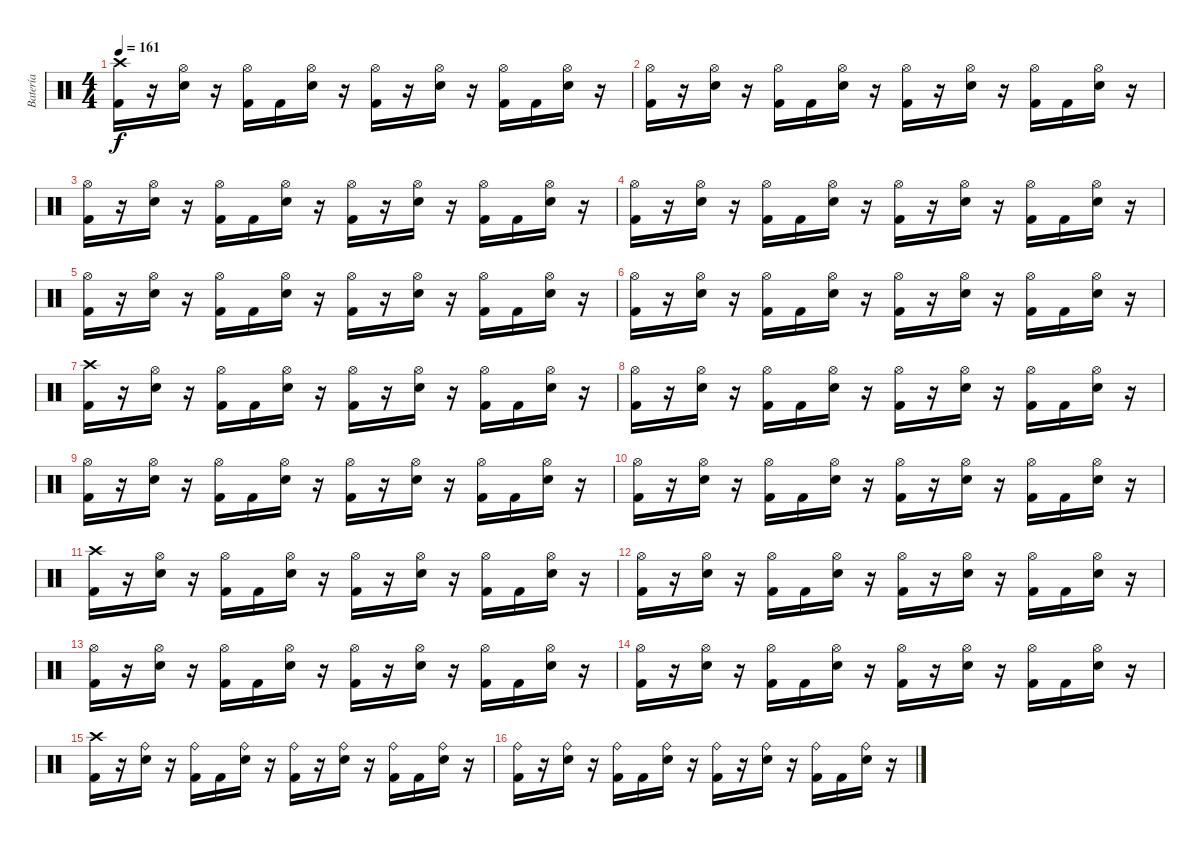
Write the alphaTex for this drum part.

\track ("Batería" "Batería") {instrument percussion}
\staff {score}
\articulation defaults
\ts (4 4)
\tempo 161
\clef neutral
\ks c
("Crash high (hit)" "Kick (hit) 2").16{dy f} r.16 ("Hi-Hat (open)" "Electric Snare (hit)").16 r.16 ("Hi-Hat (open)" "Kick (hit) 2").16 "Kick (hit) 2".16 ("Hi-Hat (open)" "Electric Snare (hit)").16 r.16 ("Hi-Hat (open)" "Kick (hit) 2").16 r.16 ("Hi-Hat (open)" "Electric Snare (hit)").16 r.16 ("Hi-Hat (open)" "Kick (hit) 2").16 "Kick (hit) 2".16 ("Hi-Hat (open)" "Electric Snare (hit)").16 r.16 |
("Hi-Hat (open)" "Kick (hit) 2").16 r.16 ("Hi-Hat (open)" "Electric Snare (hit)").16 r.16 ("Hi-Hat (open)" "Kick (hit) 2").16 "Kick (hit) 2".16 ("Hi-Hat (open)" "Electric Snare (hit)").16 r.16 ("Hi-Hat (open)" "Kick (hit) 2").16 r.16 ("Hi-Hat (open)" "Electric Snare (hit)").16 r.16 ("Hi-Hat (open)" "Kick (hit) 2").16 "Kick (hit) 2".16 ("Hi-Hat (open)" "Electric Snare (hit)").16 r.16 |
("Hi-Hat (open)" "Kick (hit) 2").16 r.16 ("Hi-Hat (open)" "Electric Snare (hit)").16 r.16 ("Hi-Hat (open)" "Kick (hit) 2").16 "Kick (hit) 2".16 ("Hi-Hat (open)" "Electric Snare (hit)").16 r.16 ("Hi-Hat (open)" "Kick (hit) 2").16 r.16 ("Hi-Hat (open)" "Electric Snare (hit)").16 r.16 ("Hi-Hat (open)" "Kick (hit) 2").16 "Kick (hit) 2".16 ("Hi-Hat (open)" "Electric Snare (hit)").16 r.16 |
("Hi-Hat (open)" "Kick (hit) 2").16 r.16 ("Hi-Hat (open)" "Electric Snare (hit)").16 r.16 ("Hi-Hat (open)" "Kick (hit) 2").16 "Kick (hit) 2".16 ("Hi-Hat (open)" "Electric Snare (hit)").16 r.16 ("Hi-Hat (open)" "Kick (hit) 2").16 r.16 ("Hi-Hat (open)" "Electric Snare (hit)").16 r.16 ("Hi-Hat (open)" "Kick (hit) 2").16 "Kick (hit) 2".16 ("Hi-Hat (open)" "Electric Snare (hit)").16 r.16 |
("Hi-Hat (open)" "Kick (hit) 2").16 r.16 ("Hi-Hat (open)" "Electric Snare (hit)").16 r.16 ("Hi-Hat (open)" "Kick (hit) 2").16 "Kick (hit) 2".16 ("Hi-Hat (open)" "Electric Snare (hit)").16 r.16 ("Hi-Hat (open)" "Kick (hit) 2").16 r.16 ("Hi-Hat (open)" "Electric Snare (hit)").16 r.16 ("Hi-Hat (open)" "Kick (hit) 2").16 "Kick (hit) 2".16 ("Hi-Hat (open)" "Electric Snare (hit)").16 r.16 |
("Hi-Hat (open)" "Kick (hit) 2").16 r.16 ("Hi-Hat (open)" "Electric Snare (hit)").16 r.16 ("Hi-Hat (open)" "Kick (hit) 2").16 "Kick (hit) 2".16 ("Hi-Hat (open)" "Electric Snare (hit)").16 r.16 ("Hi-Hat (open)" "Kick (hit) 2").16 r.16 ("Hi-Hat (open)" "Electric Snare (hit)").16 r.16 ("Hi-Hat (open)" "Kick (hit) 2").16 "Kick (hit) 2".16 ("Hi-Hat (open)" "Electric Snare (hit)").16 r.16 |
("Crash high (hit)" "Kick (hit) 2").16 r.16 ("Hi-Hat (open)" "Electric Snare (hit)").16 r.16 ("Hi-Hat (open)" "Kick (hit) 2").16 "Kick (hit) 2".16 ("Hi-Hat (open)" "Electric Snare (hit)").16 r.16 ("Hi-Hat (open)" "Kick (hit) 2").16 r.16 ("Hi-Hat (open)" "Electric Snare (hit)").16 r.16 ("Hi-Hat (open)" "Kick (hit) 2").16 "Kick (hit) 2".16 ("Hi-Hat (open)" "Electric Snare (hit)").16 r.16 |
("Hi-Hat (open)" "Kick (hit) 2").16 r.16 ("Hi-Hat (open)" "Electric Snare (hit)").16 r.16 ("Hi-Hat (open)" "Kick (hit) 2").16 "Kick (hit) 2".16 ("Hi-Hat (open)" "Electric Snare (hit)").16 r.16 ("Hi-Hat (open)" "Kick (hit) 2").16 r.16 ("Hi-Hat (open)" "Electric Snare (hit)").16 r.16 ("Hi-Hat (open)" "Kick (hit) 2").16 "Kick (hit) 2".16 ("Hi-Hat (open)" "Electric Snare (hit)").16 r.16 |
("Hi-Hat (open)" "Kick (hit) 2").16 r.16 ("Hi-Hat (open)" "Electric Snare (hit)").16 r.16 ("Hi-Hat (open)" "Kick (hit) 2").16 "Kick (hit) 2".16 ("Hi-Hat (open)" "Electric Snare (hit)").16 r.16 ("Hi-Hat (open)" "Kick (hit) 2").16 r.16 ("Hi-Hat (open)" "Electric Snare (hit)").16 r.16 ("Hi-Hat (open)" "Kick (hit) 2").16 "Kick (hit) 2".16 ("Hi-Hat (open)" "Electric Snare (hit)").16 r.16 |
("Hi-Hat (open)" "Kick (hit) 2").16 r.16 ("Hi-Hat (open)" "Electric Snare (hit)").16 r.16 ("Hi-Hat (open)" "Kick (hit) 2").16 "Kick (hit) 2".16 ("Hi-Hat (open)" "Electric Snare (hit)").16 r.16 ("Hi-Hat (open)" "Kick (hit) 2").16 r.16 ("Hi-Hat (open)" "Electric Snare (hit)").16 r.16 ("Hi-Hat (open)" "Kick (hit) 2").16 "Kick (hit) 2".16 ("Hi-Hat (open)" "Electric Snare (hit)").16 r.16 |
("Crash high (hit)" "Kick (hit) 2").16 r.16 ("Hi-Hat (open)" "Electric Snare (hit)").16 r.16 ("Hi-Hat (open)" "Kick (hit) 2").16 "Kick (hit) 2".16 ("Hi-Hat (open)" "Electric Snare (hit)").16 r.16 ("Hi-Hat (open)" "Kick (hit) 2").16 r.16 ("Hi-Hat (open)" "Electric Snare (hit)").16 r.16 ("Hi-Hat (open)" "Kick (hit) 2").16 "Kick (hit) 2".16 ("Hi-Hat (open)" "Electric Snare (hit)").16 r.16 |
("Hi-Hat (open)" "Kick (hit) 2").16 r.16 ("Hi-Hat (open)" "Electric Snare (hit)").16 r.16 ("Hi-Hat (open)" "Kick (hit) 2").16 "Kick (hit) 2".16 ("Hi-Hat (open)" "Electric Snare (hit)").16 r.16 ("Hi-Hat (open)" "Kick (hit) 2").16 r.16 ("Hi-Hat (open)" "Electric Snare (hit)").16 r.16 ("Hi-Hat (open)" "Kick (hit) 2").16 "Kick (hit) 2".16 ("Hi-Hat (open)" "Electric Snare (hit)").16 r.16 |
("Hi-Hat (open)" "Kick (hit) 2").16 r.16 ("Hi-Hat (open)" "Electric Snare (hit)").16 r.16 ("Hi-Hat (open)" "Kick (hit) 2").16 "Kick (hit) 2".16 ("Hi-Hat (open)" "Electric Snare (hit)").16 r.16 ("Hi-Hat (open)" "Kick (hit) 2").16 r.16 ("Hi-Hat (open)" "Electric Snare (hit)").16 r.16 ("Hi-Hat (open)" "Kick (hit) 2").16 "Kick (hit) 2".16 ("Hi-Hat (open)" "Electric Snare (hit)").16 r.16 |
("Hi-Hat (open)" "Kick (hit) 2").16 r.16 ("Hi-Hat (open)" "Electric Snare (hit)").16 r.16 ("Hi-Hat (open)" "Kick (hit) 2").16 "Kick (hit) 2".16 ("Hi-Hat (open)" "Electric Snare (hit)").16 r.16 ("Hi-Hat (open)" "Kick (hit) 2").16 r.16 ("Hi-Hat (open)" "Electric Snare (hit)").16 r.16 ("Hi-Hat (open)" "Kick (hit) 2").16 "Kick (hit) 2".16 ("Hi-Hat (open)" "Electric Snare (hit)").16 r.16 |
("Crash high (hit)" "Kick (hit) 2").16 r.16 ("Ride (bell)" "Electric Snare (hit)").16 r.16 ("Ride (bell)" "Kick (hit) 2").16 "Kick (hit) 2".16 ("Ride (bell)" "Electric Snare (hit)").16 r.16 ("Ride (bell)" "Kick (hit) 2").16 r.16 ("Ride (bell)" "Electric Snare (hit)").16 r.16 ("Ride (bell)" "Kick (hit) 2").16 "Kick (hit) 2".16 ("Ride (bell)" "Electric Snare (hit)").16 r.16 |
("Ride (bell)" "Kick (hit) 2").16 r.16 ("Ride (bell)" "Electric Snare (hit)").16 r.16 ("Ride (bell)" "Kick (hit) 2").16 "Kick (hit) 2".16 ("Ride (bell)" "Electric Snare (hit)").16 r.16 ("Ride (bell)" "Kick (hit) 2").16 r.16 ("Ride (bell)" "Electric Snare (hit)").16 r.16 ("Ride (bell)" "Kick (hit) 2").16 "Kick (hit) 2".16 ("Ride (bell)" "Electric Snare (hit)").16 r.16
